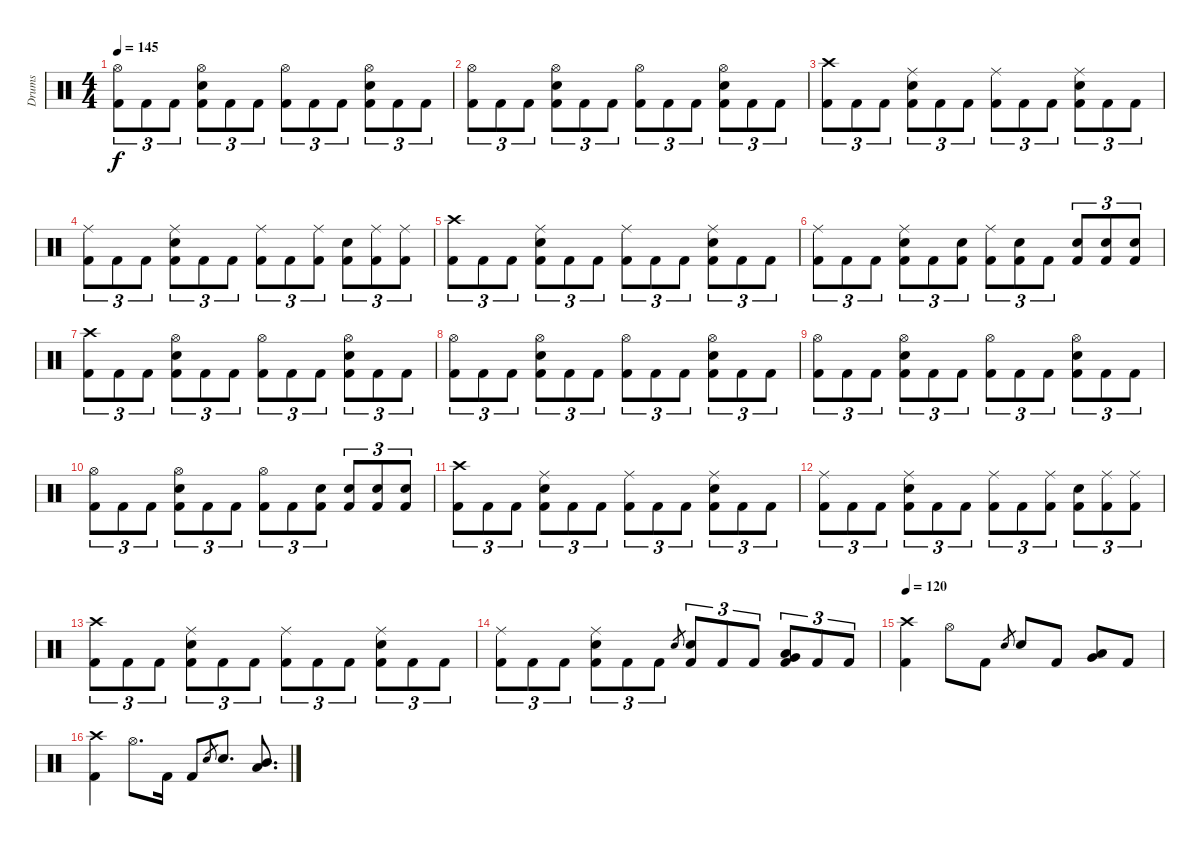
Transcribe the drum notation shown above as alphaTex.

\track ("Drums" "Drums") {instrument percussion}
\staff {score}
\articulation defaults
\ts (4 4)
\tempo 145
\clef neutral
\ks c
("Hi-Hat (open)" "Kick (hit) 2").8{tu (3 2) dy f} "Kick (hit) 2".8{tu (3 2)} "Kick (hit) 2".8{tu (3 2)} ("Hi-Hat (open)" "Electric Snare (hit)" "Kick (hit) 2").8{tu (3 2)} "Kick (hit) 2".8{tu (3 2)} "Kick (hit) 2".8{tu (3 2)} ("Hi-Hat (open)" "Kick (hit) 2").8{tu (3 2)} "Kick (hit) 2".8{tu (3 2)} "Kick (hit) 2".8{tu (3 2)} ("Hi-Hat (open)" "Electric Snare (hit)" "Kick (hit) 2").8{tu (3 2)} "Kick (hit) 2".8{tu (3 2)} "Kick (hit) 2".8{tu (3 2)} |
("Hi-Hat (open)" "Kick (hit) 2").8{tu (3 2)} "Kick (hit) 2".8{tu (3 2)} "Kick (hit) 2".8{tu (3 2)} ("Hi-Hat (open)" "Electric Snare (hit)" "Kick (hit) 2").8{tu (3 2)} "Kick (hit) 2".8{tu (3 2)} "Kick (hit) 2".8{tu (3 2)} ("Hi-Hat (open)" "Kick (hit) 2").8{tu (3 2)} "Kick (hit) 2".8{tu (3 2)} "Kick (hit) 2".8{tu (3 2)} ("Hi-Hat (open)" "Electric Snare (hit)" "Kick (hit) 2").8{tu (3 2)} "Kick (hit) 2".8{tu (3 2)} "Kick (hit) 2".8{tu (3 2)} |
("Crash high (hit)" "Kick (hit) 2").8{tu (3 2)} "Kick (hit) 2".8{tu (3 2)} "Kick (hit) 2".8{tu (3 2)} ("Ride (middle)" "Electric Snare (hit)" "Kick (hit) 2").8{tu (3 2)} "Kick (hit) 2".8{tu (3 2)} "Kick (hit) 2".8{tu (3 2)} ("Ride (middle)" "Kick (hit) 2").8{tu (3 2)} "Kick (hit) 2".8{tu (3 2)} "Kick (hit) 2".8{tu (3 2)} ("Ride (middle)" "Electric Snare (hit)" "Kick (hit) 2").8{tu (3 2)} "Kick (hit) 2".8{tu (3 2)} "Kick (hit) 2".8{tu (3 2)} |
("Ride (middle)" "Kick (hit) 2").8{tu (3 2)} "Kick (hit) 2".8{tu (3 2)} "Kick (hit) 2".8{tu (3 2)} ("Ride (middle)" "Electric Snare (hit)" "Kick (hit) 2").8{tu (3 2)} "Kick (hit) 2".8{tu (3 2)} "Kick (hit) 2".8{tu (3 2)} ("Ride (middle)" "Kick (hit) 2").8{tu (3 2)} "Kick (hit) 2".8{tu (3 2)} ("Ride (middle)" "Kick (hit) 2").8{tu (3 2)} ("Electric Snare (hit)" "Kick (hit) 2").8{tu (3 2)} ("Ride (middle)" "Kick (hit) 2").8{tu (3 2)} ("Ride (middle)" "Kick (hit) 2").8{tu (3 2)} |
("Crash high (hit)" "Kick (hit) 2").8{tu (3 2)} "Kick (hit) 2".8{tu (3 2)} "Kick (hit) 2".8{tu (3 2)} ("Ride (middle)" "Electric Snare (hit)" "Kick (hit) 2").8{tu (3 2)} "Kick (hit) 2".8{tu (3 2)} "Kick (hit) 2".8{tu (3 2)} ("Ride (middle)" "Kick (hit) 2").8{tu (3 2)} "Kick (hit) 2".8{tu (3 2)} "Kick (hit) 2".8{tu (3 2)} ("Ride (middle)" "Electric Snare (hit)" "Kick (hit) 2").8{tu (3 2)} "Kick (hit) 2".8{tu (3 2)} "Kick (hit) 2".8{tu (3 2)} |
("Ride (middle)" "Kick (hit) 2").8{tu (3 2)} "Kick (hit) 2".8{tu (3 2)} "Kick (hit) 2".8{tu (3 2)} ("Ride (middle)" "Electric Snare (hit)" "Kick (hit) 2").8{tu (3 2)} "Kick (hit) 2".8{tu (3 2)} ("Electric Snare (hit)" "Kick (hit) 2").8{tu (3 2)} ("Ride (middle)" "Kick (hit) 2").8{tu (3 2)} ("Electric Snare (hit)" "Kick (hit) 2").8{tu (3 2)} "Kick (hit) 2".8{tu (3 2)} ("Electric Snare (hit)" "Kick (hit) 2").8{tu (3 2)} ("Electric Snare (hit)" "Kick (hit) 2").8{tu (3 2)} ("Electric Snare (hit)" "Kick (hit) 2").8{tu (3 2)} |
("Crash high (hit)" "Kick (hit) 2").8{tu (3 2)} "Kick (hit) 2".8{tu (3 2)} "Kick (hit) 2".8{tu (3 2)} ("Hi-Hat (open)" "Electric Snare (hit)" "Kick (hit) 2").8{tu (3 2)} "Kick (hit) 2".8{tu (3 2)} "Kick (hit) 2".8{tu (3 2)} ("Hi-Hat (open)" "Kick (hit) 2").8{tu (3 2)} "Kick (hit) 2".8{tu (3 2)} "Kick (hit) 2".8{tu (3 2)} ("Hi-Hat (open)" "Electric Snare (hit)" "Kick (hit) 2").8{tu (3 2)} "Kick (hit) 2".8{tu (3 2)} "Kick (hit) 2".8{tu (3 2)} |
("Hi-Hat (open)" "Kick (hit) 2").8{tu (3 2)} "Kick (hit) 2".8{tu (3 2)} "Kick (hit) 2".8{tu (3 2)} ("Hi-Hat (open)" "Electric Snare (hit)" "Kick (hit) 2").8{tu (3 2)} "Kick (hit) 2".8{tu (3 2)} "Kick (hit) 2".8{tu (3 2)} ("Hi-Hat (open)" "Kick (hit) 2").8{tu (3 2)} "Kick (hit) 2".8{tu (3 2)} "Kick (hit) 2".8{tu (3 2)} ("Hi-Hat (open)" "Electric Snare (hit)" "Kick (hit) 2").8{tu (3 2)} "Kick (hit) 2".8{tu (3 2)} "Kick (hit) 2".8{tu (3 2)} |
("Hi-Hat (open)" "Kick (hit) 2").8{tu (3 2)} "Kick (hit) 2".8{tu (3 2)} "Kick (hit) 2".8{tu (3 2)} ("Hi-Hat (open)" "Electric Snare (hit)" "Kick (hit) 2").8{tu (3 2)} "Kick (hit) 2".8{tu (3 2)} "Kick (hit) 2".8{tu (3 2)} ("Hi-Hat (open)" "Kick (hit) 2").8{tu (3 2)} "Kick (hit) 2".8{tu (3 2)} "Kick (hit) 2".8{tu (3 2)} ("Hi-Hat (open)" "Electric Snare (hit)" "Kick (hit) 2").8{tu (3 2)} "Kick (hit) 2".8{tu (3 2)} "Kick (hit) 2".8{tu (3 2)} |
("Hi-Hat (open)" "Kick (hit) 2").8{tu (3 2)} "Kick (hit) 2".8{tu (3 2)} "Kick (hit) 2".8{tu (3 2)} ("Hi-Hat (open)" "Electric Snare (hit)" "Kick (hit) 2").8{tu (3 2)} "Kick (hit) 2".8{tu (3 2)} "Kick (hit) 2".8{tu (3 2)} ("Hi-Hat (open)" "Kick (hit) 2").8{tu (3 2)} "Kick (hit) 2".8{tu (3 2)} ("Electric Snare (hit)" "Kick (hit) 2").8{tu (3 2)} ("Electric Snare (hit)" "Kick (hit) 2").8{tu (3 2)} ("Electric Snare (hit)" "Kick (hit) 2").8{tu (3 2)} ("Electric Snare (hit)" "Kick (hit) 2").8{tu (3 2)} |
("Crash high (hit)" "Kick (hit) 2").8{tu (3 2)} "Kick (hit) 2".8{tu (3 2)} "Kick (hit) 2".8{tu (3 2)} ("Ride (middle)" "Electric Snare (hit)" "Kick (hit) 2").8{tu (3 2)} "Kick (hit) 2".8{tu (3 2)} "Kick (hit) 2".8{tu (3 2)} ("Ride (middle)" "Kick (hit) 2").8{tu (3 2)} "Kick (hit) 2".8{tu (3 2)} "Kick (hit) 2".8{tu (3 2)} ("Ride (middle)" "Electric Snare (hit)" "Kick (hit) 2").8{tu (3 2)} "Kick (hit) 2".8{tu (3 2)} "Kick (hit) 2".8{tu (3 2)} |
("Ride (middle)" "Kick (hit) 2").8{tu (3 2)} "Kick (hit) 2".8{tu (3 2)} "Kick (hit) 2".8{tu (3 2)} ("Ride (middle)" "Electric Snare (hit)" "Kick (hit) 2").8{tu (3 2)} "Kick (hit) 2".8{tu (3 2)} "Kick (hit) 2".8{tu (3 2)} ("Ride (middle)" "Kick (hit) 2").8{tu (3 2)} "Kick (hit) 2".8{tu (3 2)} ("Ride (middle)" "Kick (hit) 2").8{tu (3 2)} ("Electric Snare (hit)" "Kick (hit) 2").8{tu (3 2)} ("Ride (middle)" "Kick (hit) 2").8{tu (3 2)} ("Ride (middle)" "Kick (hit) 2").8{tu (3 2)} |
("Crash high (hit)" "Kick (hit) 2").8{tu (3 2)} "Kick (hit) 2".8{tu (3 2)} "Kick (hit) 2".8{tu (3 2)} ("Ride (middle)" "Electric Snare (hit)" "Kick (hit) 2").8{tu (3 2)} "Kick (hit) 2".8{tu (3 2)} "Kick (hit) 2".8{tu (3 2)} ("Ride (middle)" "Kick (hit) 2").8{tu (3 2)} "Kick (hit) 2".8{tu (3 2)} "Kick (hit) 2".8{tu (3 2)} ("Ride (middle)" "Electric Snare (hit)" "Kick (hit) 2").8{tu (3 2)} "Kick (hit) 2".8{tu (3 2)} "Kick (hit) 2".8{tu (3 2)} |
("Ride (middle)" "Kick (hit) 2").8{tu (3 2)} "Kick (hit) 2".8{tu (3 2)} "Kick (hit) 2".8{tu (3 2)} ("Ride (middle)" "Electric Snare (hit)" "Kick (hit) 2").8{tu (3 2)} "Kick (hit) 2".8{tu (3 2)} "Kick (hit) 2".8{tu (3 2)} "Electric Snare (hit)".8{gr} ("Electric Snare (hit)" "Kick (hit) 2").8{tu (3 2)} "Kick (hit) 2".8{tu (3 2)} "Kick (hit) 2".8{tu (3 2)} ("Low Tom (hit)" "Very Low Tom (hit)" "Kick (hit) 2").8{tu (3 2)} "Kick (hit) 2".8{tu (3 2)} "Kick (hit) 2".8{tu (3 2)} |
\tempo 120
("Crash high (hit)" "Kick (hit) 2").4 "Hi-Hat (open)".8 "Kick (hit) 2".8 "Electric Snare (hit)".8{gr} "Electric Snare (hit)".8 "Kick (hit) 2".8 ("Low Tom (hit)" "Very Low Tom (hit)").8 "Kick (hit) 2".8 |
("Crash high (hit)" "Kick (hit) 2").4 "Hi-Hat (open)".8{d} "Kick (hit) 2".16 "Kick (hit) 2".8 "Electric Snare (hit)".8{gr} "Electric Snare (hit)".8{d} ("Mid Tom (hit)" "Low Tom (hit)").8{d}
